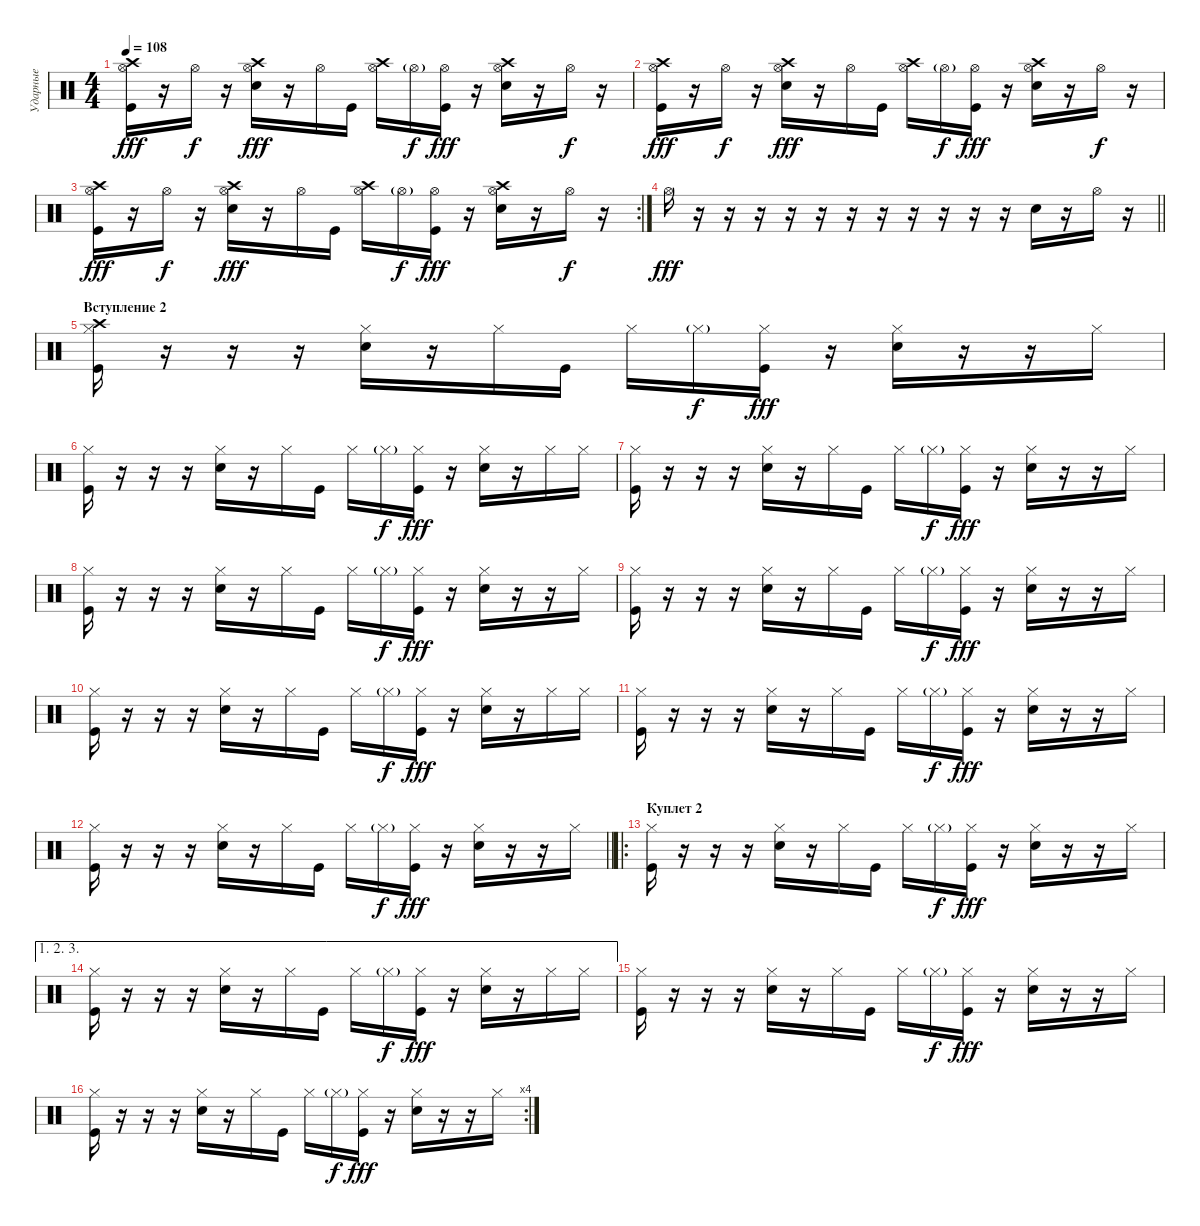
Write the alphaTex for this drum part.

\track ("Ударные" "Ударные") {instrument percussion}
\staff {score}
\articulation defaults
\ts (4 4)
\tempo 108
\clef neutral
\ks c
("Hi-Hat (open)" "Kick (hit)" "Crash high (hit)").16{dy fff} r.16 "Hi-Hat (open)".16{dy f} r.16 ("Hi-Hat (open)" "Electric Snare (hit)" "Crash high (hit)").16{dy fff} r.16 "Hi-Hat (open)".16 "Kick (hit)".16 ("Hi-Hat (open)" "Crash high (hit)").16 "Hi-Hat (open)"{g}.16{dy f} ("Hi-Hat (open)" "Kick (hit)").16{dy fff} r.16 ("Hi-Hat (open)" "Electric Snare (hit)" "Crash high (hit)").16 r.16 "Hi-Hat (open)".16{dy f} r.16 |
("Hi-Hat (open)" "Kick (hit)" "Crash high (hit)").16{dy fff} r.16 "Hi-Hat (open)".16{dy f} r.16 ("Hi-Hat (open)" "Electric Snare (hit)" "Crash high (hit)").16{dy fff} r.16 "Hi-Hat (open)".16 "Kick (hit)".16 ("Hi-Hat (open)" "Crash high (hit)").16 "Hi-Hat (open)"{g}.16{dy f} ("Hi-Hat (open)" "Kick (hit)").16{dy fff} r.16 ("Hi-Hat (open)" "Electric Snare (hit)" "Crash high (hit)").16 r.16 "Hi-Hat (open)".16{dy f} r.16 |
\rc 2
("Hi-Hat (open)" "Kick (hit)" "Crash high (hit)").16{dy fff} r.16 "Hi-Hat (open)".16{dy f} r.16 ("Hi-Hat (open)" "Electric Snare (hit)" "Crash high (hit)").16{dy fff} r.16 "Hi-Hat (open)".16 "Kick (hit)".16 ("Hi-Hat (open)" "Crash high (hit)").16 "Hi-Hat (open)"{g}.16{dy f} ("Hi-Hat (open)" "Kick (hit)").16{dy fff} r.16 ("Hi-Hat (open)" "Electric Snare (hit)" "Crash high (hit)").16 r.16 "Hi-Hat (open)".16{dy f} r.16 |
\barLineRight lightlight "Hi-Hat (open)".16{dy fff}
r.16 r.16 r.16 r.16 r.16 r.16 r.16 r.16 r.16 r.16 r.16 "Electric Snare (hit)".16 r.16 "Hi-Hat (open)".16 r.16 |
\section ("" "Вступление 2")
("Hi-Hat (closed)" "Kick (hit)" "Crash high (hit)").16 r.16 r.16 r.16 ("Hi-Hat (closed)" "Electric Snare (hit)").16 r.16 "Hi-Hat (closed)".16 "Kick (hit)".16 "Hi-Hat (closed)".16 "Hi-Hat (closed)"{g}.16{dy f} ("Hi-Hat (closed)" "Kick (hit)").16{dy fff} r.16 ("Hi-Hat (closed)" "Electric Snare (hit)").16 r.16 r.16 "Hi-Hat (closed)".16 |
("Hi-Hat (closed)" "Kick (hit)").16 r.16 r.16 r.16 ("Hi-Hat (closed)" "Electric Snare (hit)").16 r.16 "Hi-Hat (closed)".16 "Kick (hit)".16 "Hi-Hat (closed)".16 "Hi-Hat (closed)"{g}.16{dy f} ("Hi-Hat (closed)" "Kick (hit)").16{dy fff} r.16 ("Hi-Hat (closed)" "Electric Snare (hit)").16 r.16 "Hi-Hat (closed)".16 "Hi-Hat (closed)".16 |
("Hi-Hat (closed)" "Kick (hit)").16 r.16 r.16 r.16 ("Hi-Hat (closed)" "Electric Snare (hit)").16 r.16 "Hi-Hat (closed)".16 "Kick (hit)".16 "Hi-Hat (closed)".16 "Hi-Hat (closed)"{g}.16{dy f} ("Hi-Hat (closed)" "Kick (hit)").16{dy fff} r.16 ("Hi-Hat (closed)" "Electric Snare (hit)").16 r.16 r.16 "Hi-Hat (closed)".16 |
("Hi-Hat (closed)" "Kick (hit)").16 r.16 r.16 r.16 ("Hi-Hat (closed)" "Electric Snare (hit)").16 r.16 "Hi-Hat (closed)".16 "Kick (hit)".16 "Hi-Hat (closed)".16 "Hi-Hat (closed)"{g}.16{dy f} ("Hi-Hat (closed)" "Kick (hit)").16{dy fff} r.16 ("Hi-Hat (closed)" "Electric Snare (hit)").16 r.16 r.16 "Hi-Hat (closed)".16 |
("Hi-Hat (closed)" "Kick (hit)").16 r.16 r.16 r.16 ("Hi-Hat (closed)" "Electric Snare (hit)").16 r.16 "Hi-Hat (closed)".16 "Kick (hit)".16 "Hi-Hat (closed)".16 "Hi-Hat (closed)"{g}.16{dy f} ("Hi-Hat (closed)" "Kick (hit)").16{dy fff} r.16 ("Hi-Hat (closed)" "Electric Snare (hit)").16 r.16 r.16 "Hi-Hat (closed)".16 |
("Hi-Hat (closed)" "Kick (hit)").16 r.16 r.16 r.16 ("Hi-Hat (closed)" "Electric Snare (hit)").16 r.16 "Hi-Hat (closed)".16 "Kick (hit)".16 "Hi-Hat (closed)".16 "Hi-Hat (closed)"{g}.16{dy f} ("Hi-Hat (closed)" "Kick (hit)").16{dy fff} r.16 ("Hi-Hat (closed)" "Electric Snare (hit)").16 r.16 "Hi-Hat (closed)".16 "Hi-Hat (closed)".16 |
("Hi-Hat (closed)" "Kick (hit)").16 r.16 r.16 r.16 ("Hi-Hat (closed)" "Electric Snare (hit)").16 r.16 "Hi-Hat (closed)".16 "Kick (hit)".16 "Hi-Hat (closed)".16 "Hi-Hat (closed)"{g}.16{dy f} ("Hi-Hat (closed)" "Kick (hit)").16{dy fff} r.16 ("Hi-Hat (closed)" "Electric Snare (hit)").16 r.16 r.16 "Hi-Hat (closed)".16 |
\barLineRight lightlight
("Hi-Hat (closed)" "Kick (hit)").16 r.16 r.16 r.16 ("Hi-Hat (closed)" "Electric Snare (hit)").16 r.16 "Hi-Hat (closed)".16 "Kick (hit)".16 "Hi-Hat (closed)".16 "Hi-Hat (closed)"{g}.16{dy f} ("Hi-Hat (closed)" "Kick (hit)").16{dy fff} r.16 ("Hi-Hat (closed)" "Electric Snare (hit)").16 r.16 r.16 "Hi-Hat (closed)".16 |
\ro
\section ("" "Куплет 2")
("Hi-Hat (closed)" "Kick (hit)").16 r.16 r.16 r.16 ("Hi-Hat (closed)" "Electric Snare (hit)").16 r.16 "Hi-Hat (closed)".16 "Kick (hit)".16 "Hi-Hat (closed)".16 "Hi-Hat (closed)"{g}.16{dy f} ("Hi-Hat (closed)" "Kick (hit)").16{dy fff} r.16 ("Hi-Hat (closed)" "Electric Snare (hit)").16 r.16 r.16 "Hi-Hat (closed)".16 |
\ae (1 2 3)
("Hi-Hat (closed)" "Kick (hit)").16 r.16 r.16 r.16 ("Hi-Hat (closed)" "Electric Snare (hit)").16 r.16 "Hi-Hat (closed)".16 "Kick (hit)".16 "Hi-Hat (closed)".16 "Hi-Hat (closed)"{g}.16{dy f} ("Hi-Hat (closed)" "Kick (hit)").16{dy fff} r.16 ("Hi-Hat (closed)" "Electric Snare (hit)").16 r.16 "Hi-Hat (closed)".16 "Hi-Hat (closed)".16 |
("Hi-Hat (closed)" "Kick (hit)").16 r.16 r.16 r.16 ("Hi-Hat (closed)" "Electric Snare (hit)").16 r.16 "Hi-Hat (closed)".16 "Kick (hit)".16 "Hi-Hat (closed)".16 "Hi-Hat (closed)"{g}.16{dy f} ("Hi-Hat (closed)" "Kick (hit)").16{dy fff} r.16 ("Hi-Hat (closed)" "Electric Snare (hit)").16 r.16 r.16 "Hi-Hat (closed)".16 |
\rc 4
("Hi-Hat (closed)" "Kick (hit)").16 r.16 r.16 r.16 ("Hi-Hat (closed)" "Electric Snare (hit)").16 r.16 "Hi-Hat (closed)".16 "Kick (hit)".16 "Hi-Hat (closed)".16 "Hi-Hat (closed)"{g}.16{dy f} ("Hi-Hat (closed)" "Kick (hit)").16{dy fff} r.16 ("Hi-Hat (closed)" "Electric Snare (hit)").16 r.16 r.16 "Hi-Hat (closed)".16
